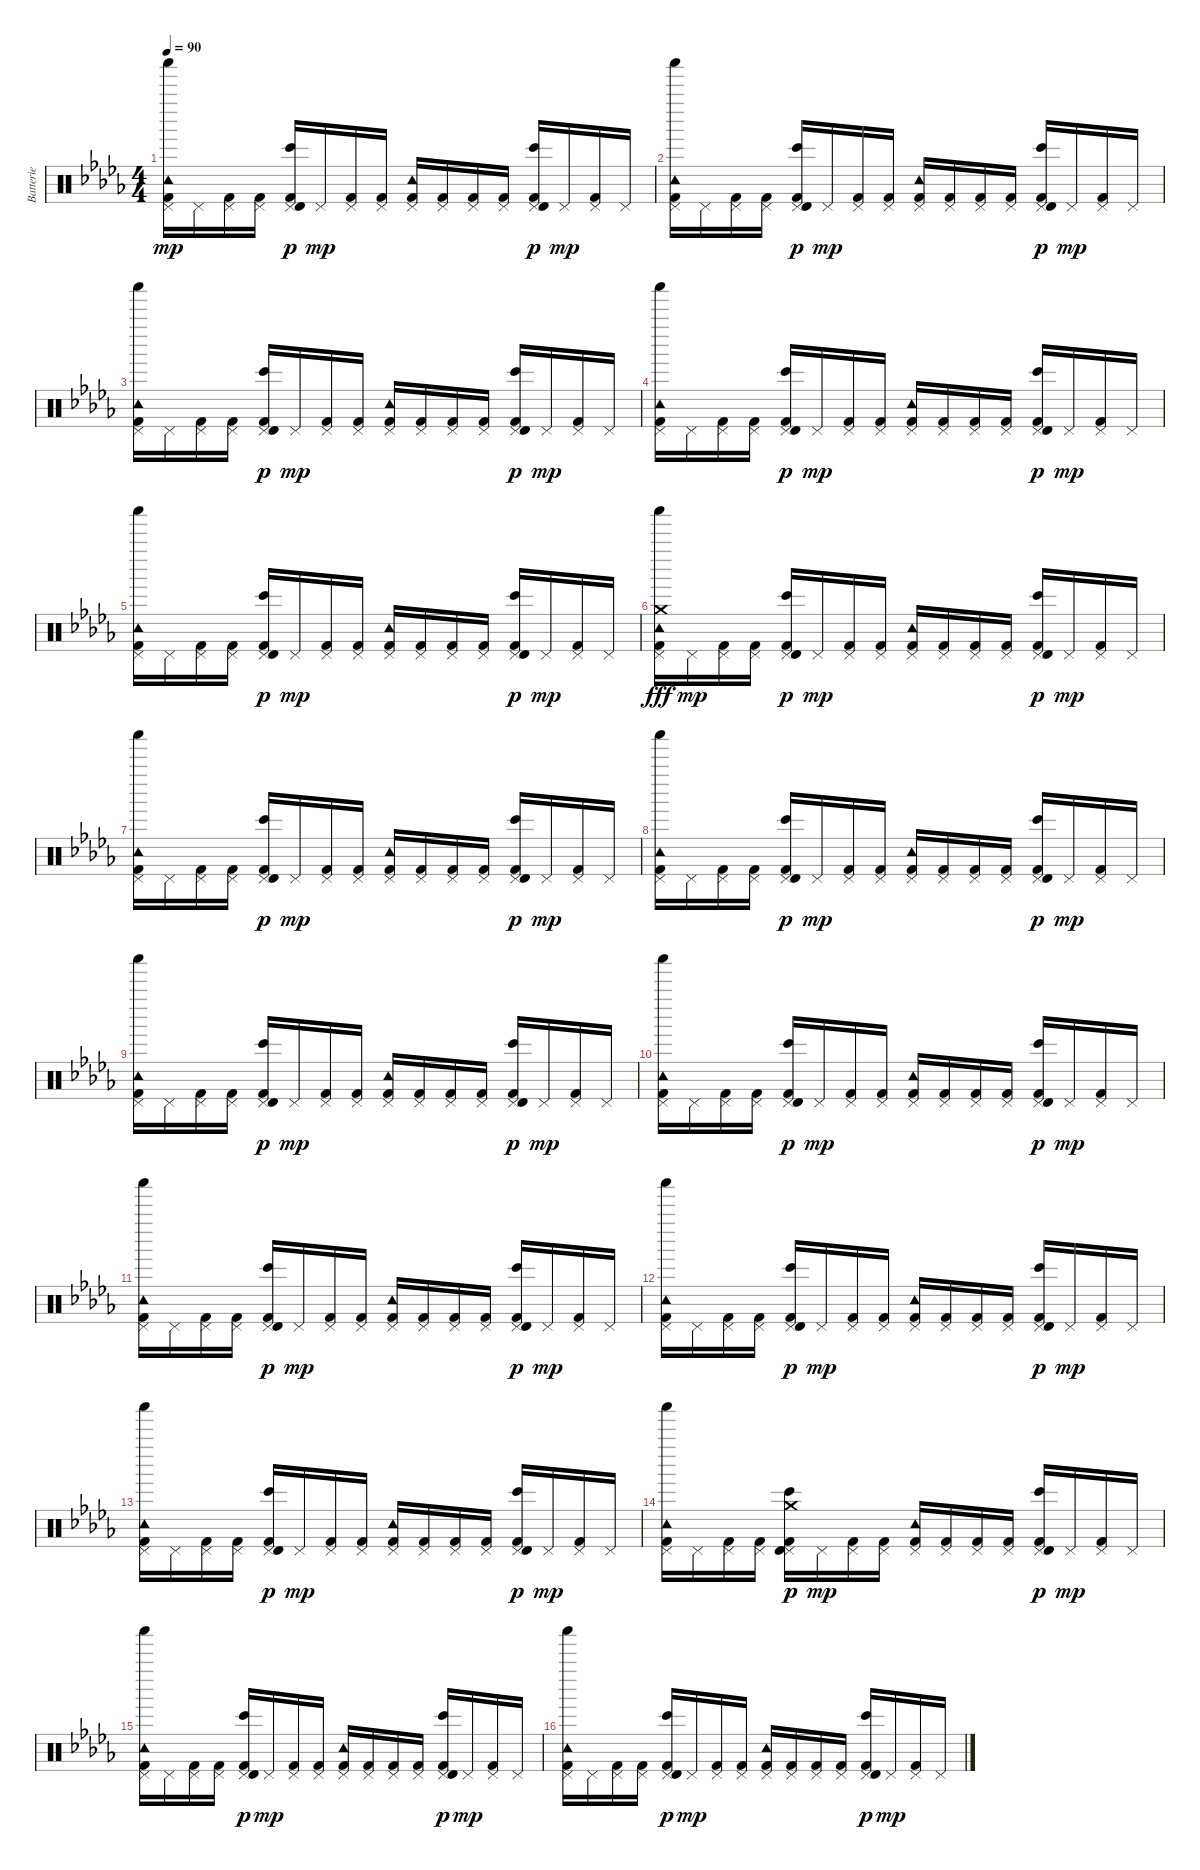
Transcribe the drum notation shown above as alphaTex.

\track ("Batterie" "Batterie") {instrument percussion}
\staff {score}
\articulation defaults
\ts (4 4)
\tempo 90
\clef neutral
\ks db
("Shaker (hit)" "Tambourine (hit)" "Pedal Hi-Hat (hit)" "Kick (hit) 2").16{dy mp} "Pedal Hi-Hat (hit)".16 ("Pedal Hi-Hat (hit)" "Kick (hit) 2").16 ("Pedal Hi-Hat (hit)" "Kick (hit) 2").16 ("Pedal Hi-Hat (hit)" "Bongo High (hit)" "Timbale high (hit)" "Kick (hit) 2").16{dy p} "Pedal Hi-Hat (hit)".16{dy mp} ("Pedal Hi-Hat (hit)" "Kick (hit) 2").16 ("Pedal Hi-Hat (hit)" "Kick (hit) 2").16 ("Tambourine (hit)" "Pedal Hi-Hat (hit)" "Kick (hit) 2").16 ("Pedal Hi-Hat (hit)" "Kick (hit) 2").16 ("Pedal Hi-Hat (hit)" "Kick (hit) 2").16 ("Pedal Hi-Hat (hit)" "Kick (hit) 2").16 ("Pedal Hi-Hat (hit)" "Bongo High (hit)" "Timbale high (hit)" "Kick (hit) 2").16{dy p} "Pedal Hi-Hat (hit)".16{dy mp} ("Pedal Hi-Hat (hit)" "Kick (hit) 2").16 "Pedal Hi-Hat (hit)".16 |
("Shaker (hit)" "Tambourine (hit)" "Pedal Hi-Hat (hit)" "Kick (hit) 2").16 "Pedal Hi-Hat (hit)".16 ("Pedal Hi-Hat (hit)" "Kick (hit) 2").16 ("Pedal Hi-Hat (hit)" "Kick (hit) 2").16 ("Pedal Hi-Hat (hit)" "Bongo High (hit)" "Timbale high (hit)" "Kick (hit) 2").16{dy p} "Pedal Hi-Hat (hit)".16{dy mp} ("Pedal Hi-Hat (hit)" "Kick (hit) 2").16 ("Pedal Hi-Hat (hit)" "Kick (hit) 2").16 ("Tambourine (hit)" "Pedal Hi-Hat (hit)" "Kick (hit) 2").16 ("Pedal Hi-Hat (hit)" "Kick (hit) 2").16 ("Pedal Hi-Hat (hit)" "Kick (hit) 2").16 ("Pedal Hi-Hat (hit)" "Kick (hit) 2").16 ("Pedal Hi-Hat (hit)" "Bongo High (hit)" "Timbale high (hit)" "Kick (hit) 2").16{dy p} "Pedal Hi-Hat (hit)".16{dy mp} ("Pedal Hi-Hat (hit)" "Kick (hit) 2").16 "Pedal Hi-Hat (hit)".16 |
("Shaker (hit)" "Tambourine (hit)" "Pedal Hi-Hat (hit)" "Kick (hit) 2").16 "Pedal Hi-Hat (hit)".16 ("Pedal Hi-Hat (hit)" "Kick (hit) 2").16 ("Pedal Hi-Hat (hit)" "Kick (hit) 2").16 ("Pedal Hi-Hat (hit)" "Bongo High (hit)" "Timbale high (hit)" "Kick (hit) 2").16{dy p} "Pedal Hi-Hat (hit)".16{dy mp} ("Pedal Hi-Hat (hit)" "Kick (hit) 2").16 ("Pedal Hi-Hat (hit)" "Kick (hit) 2").16 ("Tambourine (hit)" "Pedal Hi-Hat (hit)" "Kick (hit) 2").16 ("Pedal Hi-Hat (hit)" "Kick (hit) 2").16 ("Pedal Hi-Hat (hit)" "Kick (hit) 2").16 ("Pedal Hi-Hat (hit)" "Kick (hit) 2").16 ("Pedal Hi-Hat (hit)" "Bongo High (hit)" "Timbale high (hit)" "Kick (hit) 2").16{dy p} "Pedal Hi-Hat (hit)".16{dy mp} ("Pedal Hi-Hat (hit)" "Kick (hit) 2").16 "Pedal Hi-Hat (hit)".16 |
("Shaker (hit)" "Tambourine (hit)" "Pedal Hi-Hat (hit)" "Kick (hit) 2").16 "Pedal Hi-Hat (hit)".16 ("Pedal Hi-Hat (hit)" "Kick (hit) 2").16 ("Pedal Hi-Hat (hit)" "Kick (hit) 2").16 ("Pedal Hi-Hat (hit)" "Bongo High (hit)" "Timbale high (hit)" "Kick (hit) 2").16{dy p} "Pedal Hi-Hat (hit)".16{dy mp} ("Pedal Hi-Hat (hit)" "Kick (hit) 2").16 ("Pedal Hi-Hat (hit)" "Kick (hit) 2").16 ("Tambourine (hit)" "Pedal Hi-Hat (hit)" "Kick (hit) 2").16 ("Pedal Hi-Hat (hit)" "Kick (hit) 2").16 ("Pedal Hi-Hat (hit)" "Kick (hit) 2").16 ("Pedal Hi-Hat (hit)" "Kick (hit) 2").16 ("Pedal Hi-Hat (hit)" "Bongo High (hit)" "Timbale high (hit)" "Kick (hit) 2").16{dy p} "Pedal Hi-Hat (hit)".16{dy mp} ("Pedal Hi-Hat (hit)" "Kick (hit) 2").16 "Pedal Hi-Hat (hit)".16 |
("Shaker (hit)" "Tambourine (hit)" "Pedal Hi-Hat (hit)" "Kick (hit) 2").16 "Pedal Hi-Hat (hit)".16 ("Pedal Hi-Hat (hit)" "Kick (hit) 2").16 ("Pedal Hi-Hat (hit)" "Kick (hit) 2").16 ("Pedal Hi-Hat (hit)" "Bongo High (hit)" "Timbale high (hit)" "Kick (hit) 2").16{dy p} "Pedal Hi-Hat (hit)".16{dy mp} ("Pedal Hi-Hat (hit)" "Kick (hit) 2").16 ("Pedal Hi-Hat (hit)" "Kick (hit) 2").16 ("Tambourine (hit)" "Pedal Hi-Hat (hit)" "Kick (hit) 2").16 ("Pedal Hi-Hat (hit)" "Kick (hit) 2").16 ("Pedal Hi-Hat (hit)" "Kick (hit) 2").16 ("Pedal Hi-Hat (hit)" "Kick (hit) 2").16 ("Pedal Hi-Hat (hit)" "Bongo High (hit)" "Timbale high (hit)" "Kick (hit) 2").16{dy p} "Pedal Hi-Hat (hit)".16{dy mp} ("Pedal Hi-Hat (hit)" "Kick (hit) 2").16 "Pedal Hi-Hat (hit)".16 |
("Shaker (hit)" "Tambourine (hit)" "Pedal Hi-Hat (hit)" "Crash medium (hit)" "Kick (hit) 2").16{dy fff} "Pedal Hi-Hat (hit)".16{dy mp} ("Pedal Hi-Hat (hit)" "Kick (hit) 2").16 ("Pedal Hi-Hat (hit)" "Kick (hit) 2").16 ("Pedal Hi-Hat (hit)" "Bongo High (hit)" "Timbale high (hit)" "Kick (hit) 2").16{dy p} "Pedal Hi-Hat (hit)".16{dy mp} ("Pedal Hi-Hat (hit)" "Kick (hit) 2").16 ("Pedal Hi-Hat (hit)" "Kick (hit) 2").16 ("Tambourine (hit)" "Pedal Hi-Hat (hit)" "Kick (hit) 2").16 ("Pedal Hi-Hat (hit)" "Kick (hit) 2").16 ("Pedal Hi-Hat (hit)" "Kick (hit) 2").16 ("Pedal Hi-Hat (hit)" "Kick (hit) 2").16 ("Pedal Hi-Hat (hit)" "Bongo High (hit)" "Timbale high (hit)" "Kick (hit) 2").16{dy p} "Pedal Hi-Hat (hit)".16{dy mp} ("Pedal Hi-Hat (hit)" "Kick (hit) 2").16 "Pedal Hi-Hat (hit)".16 |
("Shaker (hit)" "Tambourine (hit)" "Pedal Hi-Hat (hit)" "Kick (hit) 2").16 "Pedal Hi-Hat (hit)".16 ("Pedal Hi-Hat (hit)" "Kick (hit) 2").16 ("Pedal Hi-Hat (hit)" "Kick (hit) 2").16 ("Pedal Hi-Hat (hit)" "Bongo High (hit)" "Timbale high (hit)" "Kick (hit) 2").16{dy p} "Pedal Hi-Hat (hit)".16{dy mp} ("Pedal Hi-Hat (hit)" "Kick (hit) 2").16 ("Pedal Hi-Hat (hit)" "Kick (hit) 2").16 ("Tambourine (hit)" "Pedal Hi-Hat (hit)" "Kick (hit) 2").16 ("Pedal Hi-Hat (hit)" "Kick (hit) 2").16 ("Pedal Hi-Hat (hit)" "Kick (hit) 2").16 ("Pedal Hi-Hat (hit)" "Kick (hit) 2").16 ("Pedal Hi-Hat (hit)" "Bongo High (hit)" "Timbale high (hit)" "Kick (hit) 2").16{dy p} "Pedal Hi-Hat (hit)".16{dy mp} ("Pedal Hi-Hat (hit)" "Kick (hit) 2").16 "Pedal Hi-Hat (hit)".16 |
("Shaker (hit)" "Tambourine (hit)" "Pedal Hi-Hat (hit)" "Kick (hit) 2").16 "Pedal Hi-Hat (hit)".16 ("Pedal Hi-Hat (hit)" "Kick (hit) 2").16 ("Pedal Hi-Hat (hit)" "Kick (hit) 2").16 ("Pedal Hi-Hat (hit)" "Bongo High (hit)" "Timbale high (hit)" "Kick (hit) 2").16{dy p} "Pedal Hi-Hat (hit)".16{dy mp} ("Pedal Hi-Hat (hit)" "Kick (hit) 2").16 ("Pedal Hi-Hat (hit)" "Kick (hit) 2").16 ("Tambourine (hit)" "Pedal Hi-Hat (hit)" "Kick (hit) 2").16 ("Pedal Hi-Hat (hit)" "Kick (hit) 2").16 ("Pedal Hi-Hat (hit)" "Kick (hit) 2").16 ("Pedal Hi-Hat (hit)" "Kick (hit) 2").16 ("Pedal Hi-Hat (hit)" "Bongo High (hit)" "Timbale high (hit)" "Kick (hit) 2").16{dy p} "Pedal Hi-Hat (hit)".16{dy mp} ("Pedal Hi-Hat (hit)" "Kick (hit) 2").16 "Pedal Hi-Hat (hit)".16 |
("Shaker (hit)" "Tambourine (hit)" "Pedal Hi-Hat (hit)" "Kick (hit) 2").16 "Pedal Hi-Hat (hit)".16 ("Pedal Hi-Hat (hit)" "Kick (hit) 2").16 ("Pedal Hi-Hat (hit)" "Kick (hit) 2").16 ("Pedal Hi-Hat (hit)" "Bongo High (hit)" "Timbale high (hit)" "Kick (hit) 2").16{dy p} "Pedal Hi-Hat (hit)".16{dy mp} ("Pedal Hi-Hat (hit)" "Kick (hit) 2").16 ("Pedal Hi-Hat (hit)" "Kick (hit) 2").16 ("Tambourine (hit)" "Pedal Hi-Hat (hit)" "Kick (hit) 2").16 ("Pedal Hi-Hat (hit)" "Kick (hit) 2").16 ("Pedal Hi-Hat (hit)" "Kick (hit) 2").16 ("Pedal Hi-Hat (hit)" "Kick (hit) 2").16 ("Pedal Hi-Hat (hit)" "Bongo High (hit)" "Timbale high (hit)" "Kick (hit) 2").16{dy p} "Pedal Hi-Hat (hit)".16{dy mp} ("Pedal Hi-Hat (hit)" "Kick (hit) 2").16 "Pedal Hi-Hat (hit)".16 |
("Shaker (hit)" "Tambourine (hit)" "Pedal Hi-Hat (hit)" "Kick (hit) 2").16 "Pedal Hi-Hat (hit)".16 ("Pedal Hi-Hat (hit)" "Kick (hit) 2").16 ("Pedal Hi-Hat (hit)" "Kick (hit) 2").16 ("Pedal Hi-Hat (hit)" "Bongo High (hit)" "Timbale high (hit)" "Kick (hit) 2").16{dy p} "Pedal Hi-Hat (hit)".16{dy mp} ("Pedal Hi-Hat (hit)" "Kick (hit) 2").16 ("Pedal Hi-Hat (hit)" "Kick (hit) 2").16 ("Tambourine (hit)" "Pedal Hi-Hat (hit)" "Kick (hit) 2").16 ("Pedal Hi-Hat (hit)" "Kick (hit) 2").16 ("Pedal Hi-Hat (hit)" "Kick (hit) 2").16 ("Pedal Hi-Hat (hit)" "Kick (hit) 2").16 ("Pedal Hi-Hat (hit)" "Bongo High (hit)" "Timbale high (hit)" "Kick (hit) 2").16{dy p} "Pedal Hi-Hat (hit)".16{dy mp} ("Pedal Hi-Hat (hit)" "Kick (hit) 2").16 "Pedal Hi-Hat (hit)".16 |
("Shaker (hit)" "Tambourine (hit)" "Pedal Hi-Hat (hit)" "Kick (hit) 2").16 "Pedal Hi-Hat (hit)".16 ("Pedal Hi-Hat (hit)" "Kick (hit) 2").16 ("Pedal Hi-Hat (hit)" "Kick (hit) 2").16 ("Pedal Hi-Hat (hit)" "Bongo High (hit)" "Timbale high (hit)" "Kick (hit) 2").16{dy p} "Pedal Hi-Hat (hit)".16{dy mp} ("Pedal Hi-Hat (hit)" "Kick (hit) 2").16 ("Pedal Hi-Hat (hit)" "Kick (hit) 2").16 ("Tambourine (hit)" "Pedal Hi-Hat (hit)" "Kick (hit) 2").16 ("Pedal Hi-Hat (hit)" "Kick (hit) 2").16 ("Pedal Hi-Hat (hit)" "Kick (hit) 2").16 ("Pedal Hi-Hat (hit)" "Kick (hit) 2").16 ("Pedal Hi-Hat (hit)" "Bongo High (hit)" "Timbale high (hit)" "Kick (hit) 2").16{dy p} "Pedal Hi-Hat (hit)".16{dy mp} ("Pedal Hi-Hat (hit)" "Kick (hit) 2").16 "Pedal Hi-Hat (hit)".16 |
("Shaker (hit)" "Tambourine (hit)" "Pedal Hi-Hat (hit)" "Kick (hit) 2").16 "Pedal Hi-Hat (hit)".16 ("Pedal Hi-Hat (hit)" "Kick (hit) 2").16 ("Pedal Hi-Hat (hit)" "Kick (hit) 2").16 ("Pedal Hi-Hat (hit)" "Bongo High (hit)" "Timbale high (hit)" "Kick (hit) 2").16{dy p} "Pedal Hi-Hat (hit)".16{dy mp} ("Pedal Hi-Hat (hit)" "Kick (hit) 2").16 ("Pedal Hi-Hat (hit)" "Kick (hit) 2").16 ("Tambourine (hit)" "Pedal Hi-Hat (hit)" "Kick (hit) 2").16 ("Pedal Hi-Hat (hit)" "Kick (hit) 2").16 ("Pedal Hi-Hat (hit)" "Kick (hit) 2").16 ("Pedal Hi-Hat (hit)" "Kick (hit) 2").16 ("Pedal Hi-Hat (hit)" "Bongo High (hit)" "Timbale high (hit)" "Kick (hit) 2").16{dy p} "Pedal Hi-Hat (hit)".16{dy mp} ("Pedal Hi-Hat (hit)" "Kick (hit) 2").16 "Pedal Hi-Hat (hit)".16 |
("Shaker (hit)" "Tambourine (hit)" "Pedal Hi-Hat (hit)" "Kick (hit) 2").16 "Pedal Hi-Hat (hit)".16 ("Pedal Hi-Hat (hit)" "Kick (hit) 2").16 ("Pedal Hi-Hat (hit)" "Kick (hit) 2").16 ("Pedal Hi-Hat (hit)" "Bongo High (hit)" "Timbale high (hit)" "Kick (hit) 2").16{dy p} "Pedal Hi-Hat (hit)".16{dy mp} ("Pedal Hi-Hat (hit)" "Kick (hit) 2").16 ("Pedal Hi-Hat (hit)" "Kick (hit) 2").16 ("Tambourine (hit)" "Pedal Hi-Hat (hit)" "Kick (hit) 2").16 ("Pedal Hi-Hat (hit)" "Kick (hit) 2").16 ("Pedal Hi-Hat (hit)" "Kick (hit) 2").16 ("Pedal Hi-Hat (hit)" "Kick (hit) 2").16 ("Pedal Hi-Hat (hit)" "Bongo High (hit)" "Timbale high (hit)" "Kick (hit) 2").16{dy p} "Pedal Hi-Hat (hit)".16{dy mp} ("Pedal Hi-Hat (hit)" "Kick (hit) 2").16 "Pedal Hi-Hat (hit)".16 |
("Shaker (hit)" "Tambourine (hit)" "Pedal Hi-Hat (hit)" "Kick (hit) 2").16 "Pedal Hi-Hat (hit)".16 ("Pedal Hi-Hat (hit)" "Kick (hit) 2").16 ("Pedal Hi-Hat (hit)" "Kick (hit) 2").16 ("Crash medium (hit)" "Pedal Hi-Hat (hit)" "Bongo High (hit)" "Timbale high (hit)" "Kick (hit) 2").16{dy p} "Pedal Hi-Hat (hit)".16{dy mp} ("Pedal Hi-Hat (hit)" "Kick (hit) 2").16 ("Pedal Hi-Hat (hit)" "Kick (hit) 2").16 ("Tambourine (hit)" "Pedal Hi-Hat (hit)" "Kick (hit) 2").16 ("Pedal Hi-Hat (hit)" "Kick (hit) 2").16 ("Pedal Hi-Hat (hit)" "Kick (hit) 2").16 ("Pedal Hi-Hat (hit)" "Kick (hit) 2").16 ("Pedal Hi-Hat (hit)" "Bongo High (hit)" "Timbale high (hit)" "Kick (hit) 2").16{dy p} "Pedal Hi-Hat (hit)".16{dy mp} ("Pedal Hi-Hat (hit)" "Kick (hit) 2").16 "Pedal Hi-Hat (hit)".16 |
("Shaker (hit)" "Tambourine (hit)" "Pedal Hi-Hat (hit)" "Kick (hit) 2").16 "Pedal Hi-Hat (hit)".16 ("Pedal Hi-Hat (hit)" "Kick (hit) 2").16 ("Pedal Hi-Hat (hit)" "Kick (hit) 2").16 ("Pedal Hi-Hat (hit)" "Bongo High (hit)" "Timbale high (hit)" "Kick (hit) 2").16{dy p} "Pedal Hi-Hat (hit)".16{dy mp} ("Pedal Hi-Hat (hit)" "Kick (hit) 2").16 ("Pedal Hi-Hat (hit)" "Kick (hit) 2").16 ("Tambourine (hit)" "Pedal Hi-Hat (hit)" "Kick (hit) 2").16 ("Pedal Hi-Hat (hit)" "Kick (hit) 2").16 ("Pedal Hi-Hat (hit)" "Kick (hit) 2").16 ("Pedal Hi-Hat (hit)" "Kick (hit) 2").16 ("Pedal Hi-Hat (hit)" "Bongo High (hit)" "Timbale high (hit)" "Kick (hit) 2").16{dy p} "Pedal Hi-Hat (hit)".16{dy mp} ("Pedal Hi-Hat (hit)" "Kick (hit) 2").16 "Pedal Hi-Hat (hit)".16 |
("Shaker (hit)" "Tambourine (hit)" "Pedal Hi-Hat (hit)" "Kick (hit) 2").16 "Pedal Hi-Hat (hit)".16 ("Pedal Hi-Hat (hit)" "Kick (hit) 2").16 ("Pedal Hi-Hat (hit)" "Kick (hit) 2").16 ("Pedal Hi-Hat (hit)" "Bongo High (hit)" "Timbale high (hit)" "Kick (hit) 2").16{dy p} "Pedal Hi-Hat (hit)".16{dy mp} ("Pedal Hi-Hat (hit)" "Kick (hit) 2").16 ("Pedal Hi-Hat (hit)" "Kick (hit) 2").16 ("Tambourine (hit)" "Pedal Hi-Hat (hit)" "Kick (hit) 2").16 ("Pedal Hi-Hat (hit)" "Kick (hit) 2").16 ("Pedal Hi-Hat (hit)" "Kick (hit) 2").16 ("Pedal Hi-Hat (hit)" "Kick (hit) 2").16 ("Pedal Hi-Hat (hit)" "Bongo High (hit)" "Timbale high (hit)" "Kick (hit) 2").16{dy p} "Pedal Hi-Hat (hit)".16{dy mp} ("Pedal Hi-Hat (hit)" "Kick (hit) 2").16 "Pedal Hi-Hat (hit)".16
